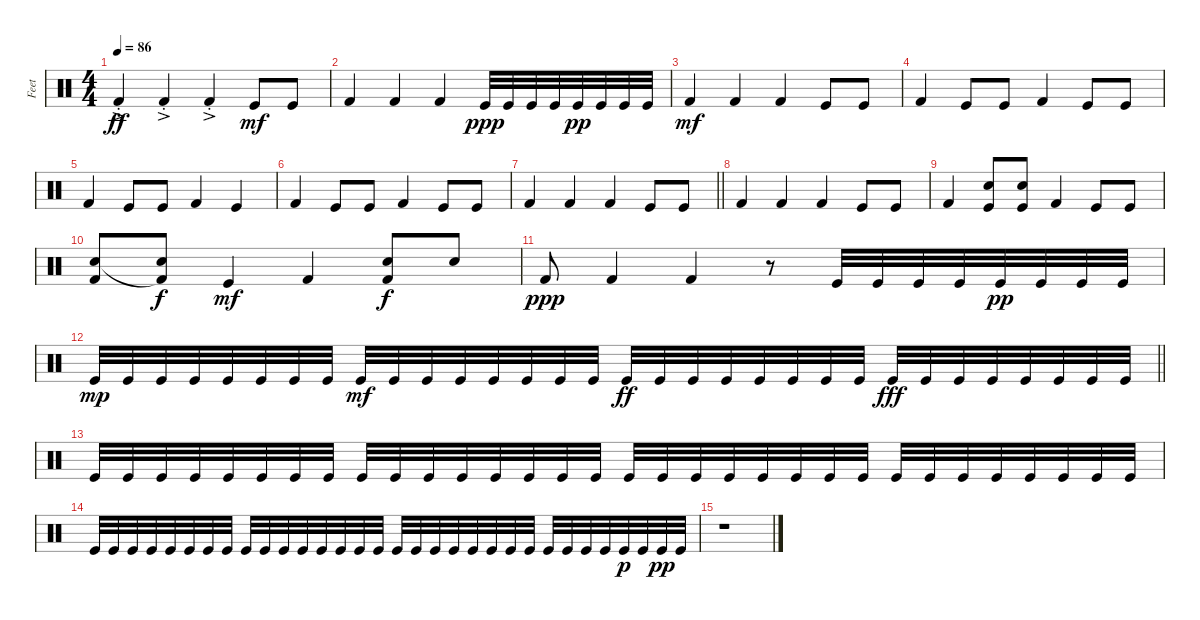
\track ("Feet" "Feet") {instrument percussion}
\staff {score}
\articulation defaults
\ts (4 4)
\tempo 86
\clef neutral
\ks aminor "Kick (hit) 2"{ac st}.4{dy ff} "Kick (hit) 2"{ac st}.4 "Kick (hit) 2"{ac st}.4 "Kick (hit)".8{dy mf} "Kick (hit)".8
|
"Kick (hit) 2".4 "Kick (hit) 2".4 "Kick (hit) 2".4 "Kick (hit)".32{dy ppp} "Kick (hit)".32 "Kick (hit)".32 "Kick (hit)".32 "Kick (hit)".32{dy pp} "Kick (hit)".32 "Kick (hit)".32 "Kick (hit)".32 |
"Kick (hit) 2".4{dy mf} "Kick (hit) 2".4 "Kick (hit) 2".4 "Kick (hit)".8 "Kick (hit)".8 |
"Kick (hit) 2".4 "Kick (hit)".8 "Kick (hit)".8 "Kick (hit) 2".4 "Kick (hit)".8 "Kick (hit)".8 |
"Kick (hit) 2".4 "Kick (hit)".8 "Kick (hit)".8 "Kick (hit) 2".4 "Kick (hit)".4 |
"Kick (hit) 2".4 "Kick (hit)".8 "Kick (hit)".8 "Kick (hit) 2".4 "Kick (hit)".8 "Kick (hit)".8 |
\barLineRight lightlight "Kick (hit) 2".4 "Kick (hit) 2".4 "Kick (hit) 2".4 "Kick (hit)".8 "Kick (hit)".8
|
"Kick (hit) 2".4 "Kick (hit) 2".4 "Kick (hit) 2".4 "Kick (hit)".8 "Kick (hit)".8 |
"Kick (hit) 2".4 ("Hand Clap (hit)" "Kick (hit)").8 ("Kick (hit)" "Hand Clap (hit)").8 "Kick (hit) 2".4 "Kick (hit)".8 "Kick (hit)".8 |
("Kick (hit) 2" "Hand Clap (hit)").8 ("Hand Clap (hit)" "Kick (hit) 2"{t}).8{dy f} "Kick (hit)".4{dy mf} "Kick (hit) 2".4 ("Kick (hit) 2" "Hand Clap (hit)").8{dy f} "Hand Clap (hit)".8 |
"Kick (hit) 2".8{dy ppp} "Kick (hit) 2".4 "Kick (hit) 2".4 r.8 "Kick (hit)".32 "Kick (hit)".32 "Kick (hit)".32 "Kick (hit)".32 "Kick (hit)".32{dy pp} "Kick (hit)".32 "Kick (hit)".32 "Kick (hit)".32 |
\barLineRight lightlight "Kick (hit)".32{dy mp} "Kick (hit)".32 "Kick (hit)".32 "Kick (hit)".32 "Kick (hit)".32 "Kick (hit)".32 "Kick (hit)".32 "Kick (hit)".32 "Kick (hit)".32{dy mf} "Kick (hit)".32 "Kick (hit)".32 "Kick (hit)".32 "Kick (hit)".32 "Kick (hit)".32 "Kick (hit)".32 "Kick (hit)".32 "Kick (hit)".32{dy ff} "Kick (hit)".32 "Kick (hit)".32 "Kick (hit)".32 "Kick (hit)".32 "Kick (hit)".32 "Kick (hit)".32 "Kick (hit)".32 "Kick (hit)".32{dy fff} "Kick (hit)".32 "Kick (hit)".32 "Kick (hit)".32 "Kick (hit)".32 "Kick (hit)".32 "Kick (hit)".32 "Kick (hit)".32
|
"Kick (hit)".32 "Kick (hit)".32 "Kick (hit)".32 "Kick (hit)".32 "Kick (hit)".32 "Kick (hit)".32 "Kick (hit)".32 "Kick (hit)".32 "Kick (hit)".32 "Kick (hit)".32 "Kick (hit)".32 "Kick (hit)".32 "Kick (hit)".32 "Kick (hit)".32 "Kick (hit)".32 "Kick (hit)".32 "Kick (hit)".32 "Kick (hit)".32 "Kick (hit)".32 "Kick (hit)".32 "Kick (hit)".32 "Kick (hit)".32 "Kick (hit)".32 "Kick (hit)".32 "Kick (hit)".32 "Kick (hit)".32 "Kick (hit)".32 "Kick (hit)".32 "Kick (hit)".32 "Kick (hit)".32 "Kick (hit)".32 "Kick (hit)".32 |
"Kick (hit)".32 "Kick (hit)".32 "Kick (hit)".32 "Kick (hit)".32 "Kick (hit)".32 "Kick (hit)".32 "Kick (hit)".32 "Kick (hit)".32 "Kick (hit)".32 "Kick (hit)".32 "Kick (hit)".32 "Kick (hit)".32 "Kick (hit)".32 "Kick (hit)".32 "Kick (hit)".32 "Kick (hit)".32 "Kick (hit)".32 "Kick (hit)".32 "Kick (hit)".32 "Kick (hit)".32 "Kick (hit)".32 "Kick (hit)".32 "Kick (hit)".32 "Kick (hit)".32 "Kick (hit)".32 "Kick (hit)".32 "Kick (hit)".32 "Kick (hit)".32 "Kick (hit)".32{dy p} "Kick (hit)".32 "Kick (hit)".32{dy pp} "Kick (hit)".32 |
r.1
